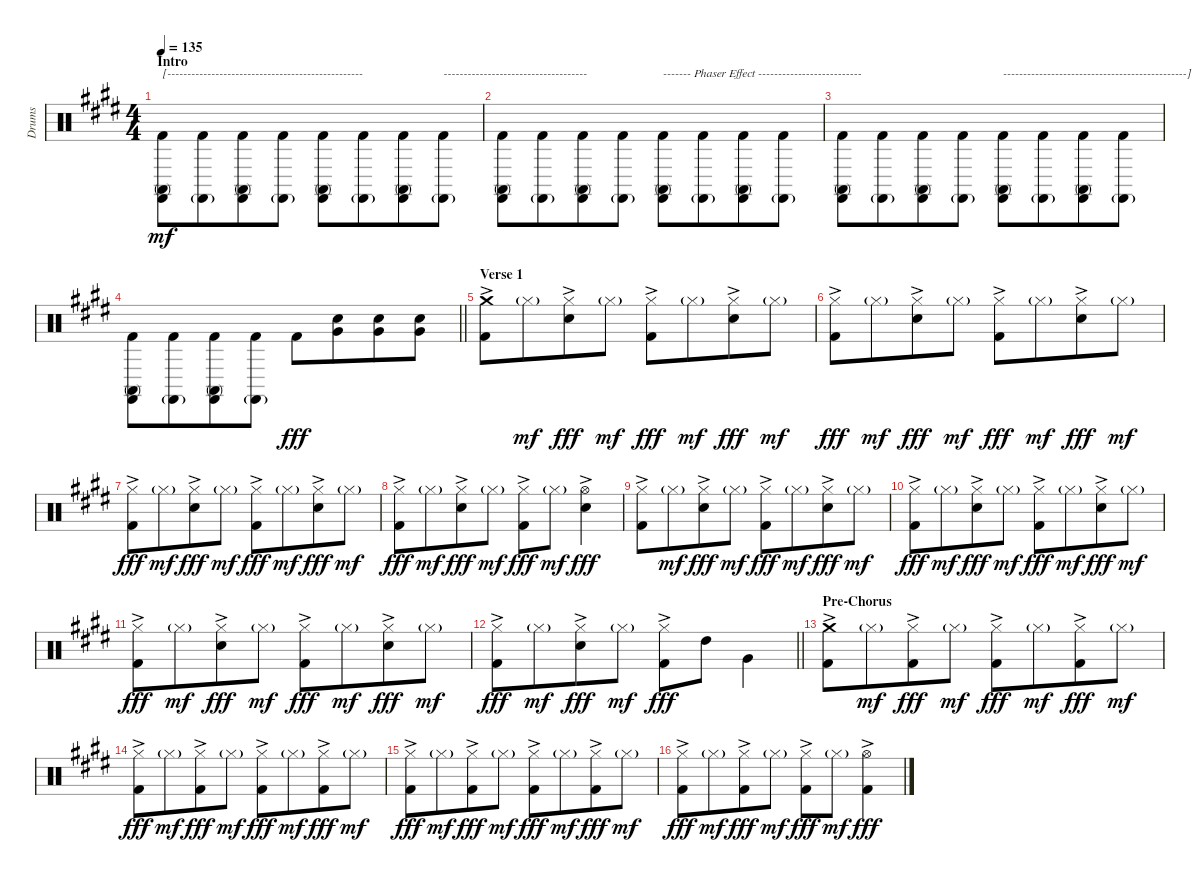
\track ("Drums" "Drums") {instrument percussion}
\staff {score}
\articulation defaults
\ts (4 4)
\section ("" "Intro")
\tempo 135
\clef neutral
\ks c#minor
("Kick (hit) 2" "Castanets (hit)" "Conga high (mute)").8{txt "[-------------------------------------------------" dy mf volume 5 beam Down} ("Kick (hit) 2" "Castanets (hit)"{g}).8{volume 13 beam Down beam merge} ("Kick (hit) 2" "Castanets (hit)" "Conga high (mute)").8{beam Down} ("Kick (hit) 2" "Castanets (hit)"{g}).8{beam Down beam split} ("Kick (hit) 2" "Castanets (hit)" "Conga high (mute)").8{beam Down} ("Kick (hit) 2" "Castanets (hit)"{g}).8{beam Down beam merge} ("Kick (hit) 2" "Castanets (hit)" "Conga high (mute)").8{beam Down} ("Kick (hit) 2" "Castanets (hit)"{g}).8{txt "------------------------------------" beam Down} |
("Kick (hit) 2" "Castanets (hit)" "Conga high (mute)").8{beam Down} ("Kick (hit) 2" "Castanets (hit)"{g}).8{beam Down beam merge} ("Kick (hit) 2" "Castanets (hit)" "Conga high (mute)").8{beam Down} ("Kick (hit) 2" "Castanets (hit)"{g}).8{beam Down beam split} ("Kick (hit) 2" "Castanets (hit)" "Conga high (mute)").8{txt "------- Phaser Effect --------------------------" beam Down} ("Kick (hit) 2" "Castanets (hit)"{g}).8{beam Down beam merge} ("Kick (hit) 2" "Castanets (hit)" "Conga high (mute)").8{beam Down} ("Kick (hit) 2" "Castanets (hit)"{g}).8{beam Down} |
("Kick (hit) 2" "Castanets (hit)" "Conga high (mute)").8{beam Down} ("Kick (hit) 2" "Castanets (hit)"{g}).8{beam Down beam merge} ("Kick (hit) 2" "Castanets (hit)" "Conga high (mute)").8{beam Down} ("Kick (hit) 2" "Castanets (hit)"{g}).8{beam Down beam split} ("Kick (hit) 2" "Castanets (hit)" "Conga high (mute)").8{txt "----------------------------------------------]" beam Down} ("Kick (hit) 2" "Castanets (hit)"{g}).8{beam Down beam merge} ("Kick (hit) 2" "Castanets (hit)" "Conga high (mute)").8{beam Down} ("Kick (hit) 2" "Castanets (hit)"{g}).8{beam Down} |
\barLineRight lightlight
("Kick (hit) 2" "Castanets (hit)" "Conga high (mute)").8{beam Down} ("Kick (hit) 2" "Castanets (hit)"{g}).8{beam Down beam merge} ("Kick (hit) 2" "Castanets (hit)" "Conga high (mute)").8{beam Down} ("Kick (hit) 2" "Castanets (hit)"{g}).8{beam Down beam split} "Kick (hit) 2".8{dy fff beam Down} ("Very Low Tom (hit)" "Snare (hit) 2").8{beam Down beam merge} ("Very Low Tom (hit)" "Snare (hit) 2").8{beam Down} ("Very Low Tom (hit)" "Snare (hit) 2").8{beam Down} |
\section ("" "Verse 1")
("Kick (hit) 2" "Crash medium (hit)"{ac}).8 "Hi-Hat (closed)"{g}.8{dy mf beam merge} ("Hi-Hat (closed)"{ac} "Snare (hit) 2").8{dy fff} "Hi-Hat (closed)"{g}.8{dy mf beam split} ("Kick (hit) 2" "Hi-Hat (closed)"{ac}).8{dy fff} "Hi-Hat (closed)"{g}.8{dy mf beam merge} ("Hi-Hat (closed)"{ac} "Snare (hit) 2").8{dy fff} "Hi-Hat (closed)"{g}.8{dy mf} |
("Kick (hit) 2" "Hi-Hat (closed)"{ac}).8{dy fff} "Hi-Hat (closed)"{g}.8{dy mf beam merge} ("Hi-Hat (closed)"{ac} "Snare (hit) 2").8{dy fff} "Hi-Hat (closed)"{g}.8{dy mf beam split} ("Kick (hit) 2" "Hi-Hat (closed)"{ac}).8{dy fff} "Hi-Hat (closed)"{g}.8{dy mf beam merge} ("Hi-Hat (closed)"{ac} "Snare (hit) 2").8{dy fff} "Hi-Hat (closed)"{g}.8{dy mf} |
("Kick (hit) 2" "Hi-Hat (closed)"{ac}).8{dy fff} "Hi-Hat (closed)"{g}.8{dy mf beam merge} ("Hi-Hat (closed)"{ac} "Snare (hit) 2").8{dy fff} "Hi-Hat (closed)"{g}.8{dy mf beam split} ("Kick (hit) 2" "Hi-Hat (closed)"{ac}).8{dy fff} "Hi-Hat (closed)"{g}.8{dy mf beam merge} ("Hi-Hat (closed)"{ac} "Snare (hit) 2").8{dy fff} "Hi-Hat (closed)"{g}.8{dy mf} |
("Kick (hit) 2" "Hi-Hat (closed)"{ac}).8{dy fff} "Hi-Hat (closed)"{g}.8{dy mf beam merge} ("Hi-Hat (closed)"{ac} "Snare (hit) 2").8{dy fff} "Hi-Hat (closed)"{g}.8{dy mf beam split} ("Kick (hit) 2" "Hi-Hat (closed)"{ac}).8{dy fff} "Hi-Hat (closed)"{g}.8{dy mf beam merge} ("Hi-Hat (open)"{ac} "Snare (hit) 2").4{dy fff} |
("Kick (hit) 2" "Hi-Hat (closed)"{ac}).8 "Hi-Hat (closed)"{g}.8{dy mf beam merge} ("Hi-Hat (closed)"{ac} "Snare (hit) 2").8{dy fff} "Hi-Hat (closed)"{g}.8{dy mf beam split} ("Kick (hit) 2" "Hi-Hat (closed)"{ac}).8{dy fff} "Hi-Hat (closed)"{g}.8{dy mf beam merge} ("Hi-Hat (closed)"{ac} "Snare (hit) 2").8{dy fff} "Hi-Hat (closed)"{g}.8{dy mf} |
("Kick (hit) 2" "Hi-Hat (closed)"{ac}).8{dy fff} "Hi-Hat (closed)"{g}.8{dy mf beam merge} ("Hi-Hat (closed)"{ac} "Snare (hit) 2").8{dy fff} "Hi-Hat (closed)"{g}.8{dy mf beam split} ("Kick (hit) 2" "Hi-Hat (closed)"{ac}).8{dy fff} "Hi-Hat (closed)"{g}.8{dy mf beam merge} ("Hi-Hat (closed)"{ac} "Snare (hit) 2").8{dy fff} "Hi-Hat (closed)"{g}.8{dy mf} |
("Kick (hit) 2" "Hi-Hat (closed)"{ac}).8{dy fff} "Hi-Hat (closed)"{g}.8{dy mf beam merge} ("Hi-Hat (closed)"{ac} "Snare (hit) 2").8{dy fff} "Hi-Hat (closed)"{g}.8{dy mf beam split} ("Kick (hit) 2" "Hi-Hat (closed)"{ac}).8{dy fff} "Hi-Hat (closed)"{g}.8{dy mf beam merge} ("Hi-Hat (closed)"{ac} "Snare (hit) 2").8{dy fff} "Hi-Hat (closed)"{g}.8{dy mf} |
\barLineRight lightlight
("Kick (hit) 2" "Hi-Hat (closed)"{ac}).8{dy fff} "Hi-Hat (closed)"{g}.8{dy mf beam merge} ("Hi-Hat (closed)"{ac} "Snare (hit) 2").8{dy fff} "Hi-Hat (closed)"{g}.8{dy mf beam split} ("Kick (hit) 2" "Hi-Hat (closed)"{ac}).8{dy fff} "High Tom (hit)".8 "Very Low Tom (hit)".4{beam Down} |
\section ("" "Pre-Chorus")
("Kick (hit) 2" "Crash medium (hit)"{ac}).8 "Hi-Hat (closed)"{g}.8{dy mf beam merge} ("Kick (hit) 2" "Hi-Hat (closed)"{ac}).8{dy fff} "Hi-Hat (closed)"{g}.8{dy mf beam split} ("Kick (hit) 2" "Hi-Hat (closed)"{ac}).8{dy fff} "Hi-Hat (closed)"{g}.8{dy mf beam merge} ("Kick (hit) 2" "Hi-Hat (closed)"{ac}).8{dy fff} "Hi-Hat (closed)"{g}.8{dy mf} |
("Kick (hit) 2" "Hi-Hat (closed)"{ac}).8{dy fff} "Hi-Hat (closed)"{g}.8{dy mf beam merge} ("Kick (hit) 2" "Hi-Hat (closed)"{ac}).8{dy fff} "Hi-Hat (closed)"{g}.8{dy mf beam split} ("Kick (hit) 2" "Hi-Hat (closed)"{ac}).8{dy fff} "Hi-Hat (closed)"{g}.8{dy mf beam merge} ("Kick (hit) 2" "Hi-Hat (closed)"{ac}).8{dy fff} "Hi-Hat (closed)"{g}.8{dy mf} |
("Kick (hit) 2" "Hi-Hat (closed)"{ac}).8{dy fff} "Hi-Hat (closed)"{g}.8{dy mf beam merge} ("Kick (hit) 2" "Hi-Hat (closed)"{ac}).8{dy fff} "Hi-Hat (closed)"{g}.8{dy mf beam split} ("Kick (hit) 2" "Hi-Hat (closed)"{ac}).8{dy fff} "Hi-Hat (closed)"{g}.8{dy mf beam merge} ("Kick (hit) 2" "Hi-Hat (closed)"{ac}).8{dy fff} "Hi-Hat (closed)"{g}.8{dy mf} |
("Kick (hit) 2" "Hi-Hat (closed)"{ac}).8{dy fff} "Hi-Hat (closed)"{g}.8{dy mf beam merge} ("Kick (hit) 2" "Hi-Hat (closed)"{ac}).8{dy fff} "Hi-Hat (closed)"{g}.8{dy mf beam split} ("Kick (hit) 2" "Hi-Hat (closed)"{ac}).8{dy fff} "Hi-Hat (closed)"{g}.8{dy mf beam merge} ("Kick (hit) 2" "Hi-Hat (open)"{ac}).4{dy fff}
